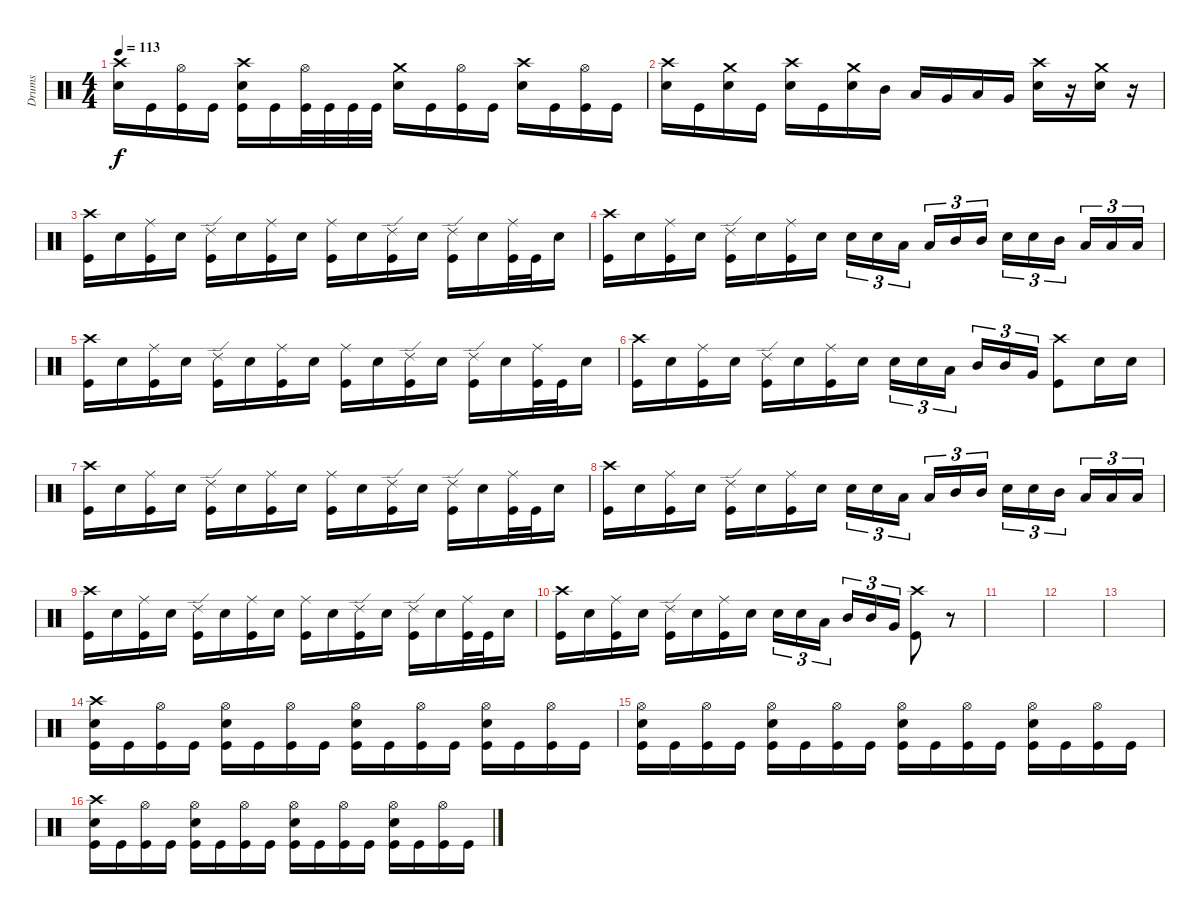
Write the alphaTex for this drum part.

\track ("Drums" "Drums") {instrument percussion}
\staff {score}
\articulation defaults
\ts (4 4)
\tempo 113
\clef neutral
\ks c
("Crash high (hit)" "Electric Snare (hit)").16{dy f} "Kick (hit)".16 ("Hi-Hat (open)" "Kick (hit)").16 "Kick (hit)".16 ("Crash high (hit)" "Electric Snare (hit)" "Kick (hit)").16 "Kick (hit)".16 ("Hi-Hat (open)" "Kick (hit)").32 "Kick (hit)".32 "Kick (hit)".32 "Kick (hit)".32 ("Crash medium (hit)" "Electric Snare (hit)").16 "Kick (hit)".16 ("Hi-Hat (open)" "Kick (hit)").16 "Kick (hit)".16 ("Crash high (hit)" "Electric Snare (hit)").16 "Kick (hit)".16 ("Hi-Hat (open)" "Kick (hit)").16 "Kick (hit)".16 |
("Crash high (hit)" "Electric Snare (hit)").16 "Kick (hit)".16 ("Crash medium (hit)" "Electric Snare (hit)").16 "Kick (hit)".16 ("Crash high (hit)" "Electric Snare (hit)").16 "Kick (hit)".16 ("Crash medium (hit)" "Electric Snare (hit)").16 "Mid Tom (hit)".16 "Low Tom (hit)".16 "Very Low Tom (hit)".16 "Low Floor Tom (hit)".16 "Very Low Tom (hit)".16 ("Crash high (hit)" "Electric Snare (hit)").16 r.16 ("Crash medium (hit)" "Electric Snare (hit)").16 r.16 |
("Crash high (hit)" "Kick (hit)").16 "Electric Snare (hit)".16 ("Ride (middle)" "Kick (hit)").16 "Electric Snare (hit)".16 ("Ride (edge) 2" "Kick (hit)").16 "Electric Snare (hit)".16 ("Ride (middle)" "Kick (hit)").16 "Electric Snare (hit)".16 ("Ride (middle)" "Kick (hit)").16 "Electric Snare (hit)".16 ("Ride (edge) 2" "Kick (hit)").16 "Electric Snare (hit)".16 ("Ride (edge) 2" "Kick (hit)").16 "Electric Snare (hit)".16 ("Ride (middle)" "Kick (hit)").32 "Kick (hit)".32 "Electric Snare (hit)".16 |
("Crash high (hit)" "Kick (hit)").16 "Electric Snare (hit)".16 ("Ride (middle)" "Kick (hit)").16 "Electric Snare (hit)".16 ("Ride (edge) 2" "Kick (hit)").16 "Electric Snare (hit)".16 ("Ride (middle)" "Kick (hit)").16 "Electric Snare (hit)".16 "Electric Snare (hit)".16{tu (3 2)} "Electric Snare (hit)".16{tu (3 2)} "Low Tom (hit)".16{tu (3 2) beam splitsecondary} "Low Tom (hit)".16{tu (3 2)} "Mid Tom (hit)".16{tu (3 2)} "Mid Tom (hit)".16{tu (3 2)} "Electric Snare (hit)".16{tu (3 2)} "Electric Snare (hit)".16{tu (3 2)} "Mid Tom (hit)".16{tu (3 2) beam splitsecondary} "Low Tom (hit)".16{tu (3 2)} "Low Tom (hit)".16{tu (3 2)} "Low Tom (hit)".16{tu (3 2)} |
("Crash high (hit)" "Kick (hit)").16 "Electric Snare (hit)".16 ("Ride (middle)" "Kick (hit)").16 "Electric Snare (hit)".16 ("Ride (edge) 2" "Kick (hit)").16 "Electric Snare (hit)".16 ("Ride (middle)" "Kick (hit)").16 "Electric Snare (hit)".16 ("Ride (middle)" "Kick (hit)").16 "Electric Snare (hit)".16 ("Ride (edge) 2" "Kick (hit)").16 "Electric Snare (hit)".16 ("Ride (edge) 2" "Kick (hit)").16 "Electric Snare (hit)".16 ("Ride (middle)" "Kick (hit)").32 "Kick (hit)".32 "Electric Snare (hit)".16 |
("Crash high (hit)" "Kick (hit)").16 "Electric Snare (hit)".16 ("Ride (middle)" "Kick (hit)").16 "Electric Snare (hit)".16 ("Ride (edge) 2" "Kick (hit)").16 "Electric Snare (hit)".16 ("Ride (middle)" "Kick (hit)").16 "Electric Snare (hit)".16 "Electric Snare (hit)".16{tu (3 2)} "Electric Snare (hit)".16{tu (3 2)} "Low Tom (hit)".16{tu (3 2) beam splitsecondary} "Mid Tom (hit)".16{tu (3 2)} "Mid Tom (hit)".16{tu (3 2)} "Very Low Tom (hit)".16{tu (3 2)} ("Crash high (hit)" "Kick (hit)").8 "Electric Snare (hit)".16 "Electric Snare (hit)".16 |
("Crash high (hit)" "Kick (hit)").16 "Electric Snare (hit)".16 ("Ride (middle)" "Kick (hit)").16 "Electric Snare (hit)".16 ("Ride (edge) 2" "Kick (hit)").16 "Electric Snare (hit)".16 ("Ride (middle)" "Kick (hit)").16 "Electric Snare (hit)".16 ("Ride (middle)" "Kick (hit)").16 "Electric Snare (hit)".16 ("Ride (edge) 2" "Kick (hit)").16 "Electric Snare (hit)".16 ("Ride (edge) 2" "Kick (hit)").16 "Electric Snare (hit)".16 ("Ride (middle)" "Kick (hit)").32 "Kick (hit)".32 "Electric Snare (hit)".16 |
("Crash high (hit)" "Kick (hit)").16 "Electric Snare (hit)".16 ("Ride (middle)" "Kick (hit)").16 "Electric Snare (hit)".16 ("Ride (edge) 2" "Kick (hit)").16 "Electric Snare (hit)".16 ("Ride (middle)" "Kick (hit)").16 "Electric Snare (hit)".16 "Electric Snare (hit)".16{tu (3 2)} "Electric Snare (hit)".16{tu (3 2)} "Low Tom (hit)".16{tu (3 2) beam splitsecondary} "Low Tom (hit)".16{tu (3 2)} "Mid Tom (hit)".16{tu (3 2)} "Mid Tom (hit)".16{tu (3 2)} "Electric Snare (hit)".16{tu (3 2)} "Electric Snare (hit)".16{tu (3 2)} "Mid Tom (hit)".16{tu (3 2) beam splitsecondary} "Low Tom (hit)".16{tu (3 2)} "Low Tom (hit)".16{tu (3 2)} "Low Tom (hit)".16{tu (3 2)} |
("Crash high (hit)" "Kick (hit)").16 "Electric Snare (hit)".16 ("Ride (middle)" "Kick (hit)").16 "Electric Snare (hit)".16 ("Ride (edge) 2" "Kick (hit)").16 "Electric Snare (hit)".16 ("Ride (middle)" "Kick (hit)").16 "Electric Snare (hit)".16 ("Ride (middle)" "Kick (hit)").16 "Electric Snare (hit)".16 ("Ride (edge) 2" "Kick (hit)").16 "Electric Snare (hit)".16 ("Ride (edge) 2" "Kick (hit)").16 "Electric Snare (hit)".16 ("Ride (middle)" "Kick (hit)").32 "Kick (hit)".32 "Electric Snare (hit)".16 |
("Crash high (hit)" "Kick (hit)").16 "Electric Snare (hit)".16 ("Ride (middle)" "Kick (hit)").16 "Electric Snare (hit)".16 ("Ride (edge) 2" "Kick (hit)").16 "Electric Snare (hit)".16 ("Ride (middle)" "Kick (hit)").16 "Electric Snare (hit)".16 "Electric Snare (hit)".16{tu (3 2)} "Electric Snare (hit)".16{tu (3 2)} "Low Tom (hit)".16{tu (3 2) beam splitsecondary} "Mid Tom (hit)".16{tu (3 2)} "Mid Tom (hit)".16{tu (3 2)} "Very Low Tom (hit)".16{tu (3 2)} ("Crash high (hit)" "Kick (hit)").8 r.8 |
|
|
|
("Crash high (hit)" "Electric Snare (hit)" "Kick (hit)").16 "Kick (hit)".16 ("Hi-Hat (open)" "Kick (hit)").16 "Kick (hit)".16 ("Hi-Hat (open)" "Electric Snare (hit)" "Kick (hit)").16 "Kick (hit)".16 ("Hi-Hat (open)" "Kick (hit)").16 "Kick (hit)".16 ("Hi-Hat (open)" "Electric Snare (hit)" "Kick (hit)").16 "Kick (hit)".16 ("Hi-Hat (open)" "Kick (hit)").16 "Kick (hit)".16 ("Hi-Hat (open)" "Electric Snare (hit)" "Kick (hit)").16 "Kick (hit)".16 ("Hi-Hat (open)" "Kick (hit)").16 "Kick (hit)".16 |
("Hi-Hat (open)" "Electric Snare (hit)" "Kick (hit)").16 "Kick (hit)".16 ("Hi-Hat (open)" "Kick (hit)").16 "Kick (hit)".16 ("Hi-Hat (open)" "Electric Snare (hit)" "Kick (hit)").16 "Kick (hit)".16 ("Hi-Hat (open)" "Kick (hit)").16 "Kick (hit)".16 ("Hi-Hat (open)" "Electric Snare (hit)" "Kick (hit)").16 "Kick (hit)".16 ("Hi-Hat (open)" "Kick (hit)").16 "Kick (hit)".16 ("Hi-Hat (open)" "Electric Snare (hit)" "Kick (hit)").16 "Kick (hit)".16 ("Hi-Hat (open)" "Kick (hit)").16 "Kick (hit)".16 |
("Crash high (hit)" "Electric Snare (hit)" "Kick (hit)").16 "Kick (hit)".16 ("Hi-Hat (open)" "Kick (hit)").16 "Kick (hit)".16 ("Hi-Hat (open)" "Electric Snare (hit)" "Kick (hit)").16 "Kick (hit)".16 ("Hi-Hat (open)" "Kick (hit)").16 "Kick (hit)".16 ("Hi-Hat (open)" "Electric Snare (hit)" "Kick (hit)").16 "Kick (hit)".16 ("Hi-Hat (open)" "Kick (hit)").16 "Kick (hit)".16 ("Hi-Hat (open)" "Electric Snare (hit)" "Kick (hit)").16 "Kick (hit)".16 ("Hi-Hat (open)" "Kick (hit)").16 "Kick (hit)".16
